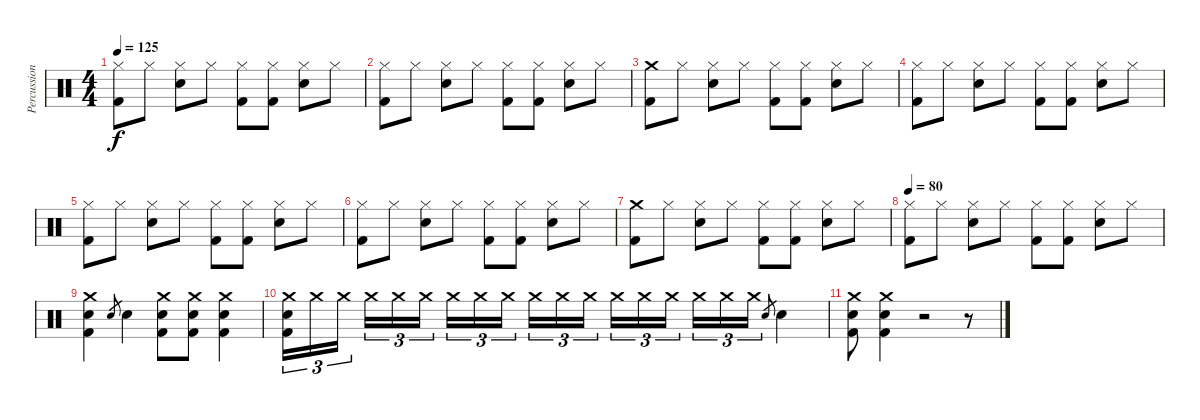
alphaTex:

\track ("Percussion" "Percussion") {instrument percussion}
\staff {score}
\articulation defaults
\ts (4 4)
\tempo 125
\clef neutral
\ks c
("Hi-Hat (closed)" "Kick (hit) 2").8{dy f} "Hi-Hat (closed)".8 ("Hi-Hat (closed)" "Snare (hit) 2").8 "Hi-Hat (closed)".8 ("Hi-Hat (closed)" "Kick (hit) 2").8 ("Hi-Hat (closed)" "Kick (hit) 2").8 ("Hi-Hat (closed)" "Snare (hit) 2").8 "Hi-Hat (closed)".8 |
("Hi-Hat (closed)" "Kick (hit) 2").8 "Hi-Hat (closed)".8 ("Hi-Hat (closed)" "Snare (hit) 2").8 "Hi-Hat (closed)".8 ("Hi-Hat (closed)" "Kick (hit) 2").8 ("Hi-Hat (closed)" "Kick (hit) 2").8 ("Hi-Hat (closed)" "Snare (hit) 2").8 "Hi-Hat (closed)".8 |
("Crash medium (hit)" "Kick (hit) 2").8 "Hi-Hat (closed)".8 ("Hi-Hat (closed)" "Snare (hit) 2").8 "Hi-Hat (closed)".8 ("Hi-Hat (closed)" "Kick (hit) 2").8 ("Hi-Hat (closed)" "Kick (hit) 2").8 ("Hi-Hat (closed)" "Snare (hit) 2").8 "Hi-Hat (closed)".8 |
("Hi-Hat (closed)" "Kick (hit) 2").8 "Hi-Hat (closed)".8 ("Hi-Hat (closed)" "Snare (hit) 2").8 "Hi-Hat (closed)".8 ("Hi-Hat (closed)" "Kick (hit) 2").8 ("Hi-Hat (closed)" "Kick (hit) 2").8 ("Hi-Hat (closed)" "Snare (hit) 2").8 "Hi-Hat (closed)".8 |
("Hi-Hat (closed)" "Kick (hit) 2").8 "Hi-Hat (closed)".8 ("Hi-Hat (closed)" "Snare (hit) 2").8 "Hi-Hat (closed)".8 ("Hi-Hat (closed)" "Kick (hit) 2").8 ("Hi-Hat (closed)" "Kick (hit) 2").8 ("Hi-Hat (closed)" "Snare (hit) 2").8 "Hi-Hat (closed)".8 |
("Hi-Hat (closed)" "Kick (hit) 2").8 "Hi-Hat (closed)".8 ("Hi-Hat (closed)" "Snare (hit) 2").8 "Hi-Hat (closed)".8 ("Hi-Hat (closed)" "Kick (hit) 2").8 ("Hi-Hat (closed)" "Kick (hit) 2").8 ("Hi-Hat (closed)" "Snare (hit) 2").8 "Hi-Hat (closed)".8 |
("Crash medium (hit)" "Kick (hit) 2").8 "Hi-Hat (closed)".8 ("Hi-Hat (closed)" "Snare (hit) 2").8 "Hi-Hat (closed)".8 ("Hi-Hat (closed)" "Kick (hit) 2").8 ("Hi-Hat (closed)" "Kick (hit) 2").8 ("Hi-Hat (closed)" "Snare (hit) 2").8 "Hi-Hat (closed)".8 |
\tempo 80
("Hi-Hat (closed)" "Kick (hit) 2").8 "Hi-Hat (closed)".8 ("Hi-Hat (closed)" "Snare (hit) 2").8 "Hi-Hat (closed)".8 ("Hi-Hat (closed)" "Kick (hit) 2").8 ("Hi-Hat (closed)" "Kick (hit) 2").8 ("Hi-Hat (closed)" "Snare (hit) 2").8 "Hi-Hat (closed)".8 |
("Crash medium (hit)" "Snare (hit) 2" "Kick (hit) 2").4 "Snare (hit) 2".8{gr} "Snare (hit) 2".4 ("Crash medium (hit)" "Snare (hit) 2" "Kick (hit) 2").8 ("Crash medium (hit)" "Snare (hit) 2" "Kick (hit) 2").8 ("Crash medium (hit)" "Snare (hit) 2" "Kick (hit) 2").4 |
("Crash medium (hit)" "Snare (hit) 2" "Kick (hit) 2").16{tu (3 2)} "Crash medium (hit)".16{tu (3 2)} "Crash medium (hit)".16{tu (3 2)} "Crash medium (hit)".16{tu (3 2)} "Crash medium (hit)".16{tu (3 2)} "Crash medium (hit)".16{tu (3 2)} "Crash medium (hit)".16{tu (3 2)} "Crash medium (hit)".16{tu (3 2)} "Crash medium (hit)".16{tu (3 2)} "Crash medium (hit)".16{tu (3 2)} "Crash medium (hit)".16{tu (3 2)} "Crash medium (hit)".16{tu (3 2)} "Crash medium (hit)".16{tu (3 2)} "Crash medium (hit)".16{tu (3 2)} "Crash medium (hit)".16{tu (3 2)} "Crash medium (hit)".16{tu (3 2)} "Crash medium (hit)".16{tu (3 2)} "Crash medium (hit)".16{tu (3 2)} "Snare (hit) 2".8{gr} "Snare (hit) 2".4 |
("Crash medium (hit)" "Snare (hit) 2" "Kick (hit) 2").8 ("Crash medium (hit)" "Snare (hit) 2" "Kick (hit) 2").4 r.2 r.8
